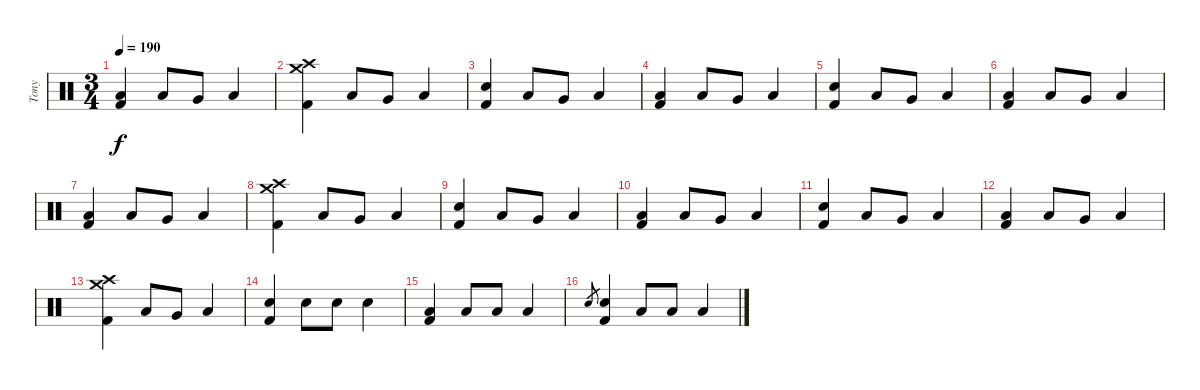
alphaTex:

\track ("Tony" "Tony") {instrument percussion}
\staff {score}
\articulation defaults
\ts (3 4)
\tempo 190
\clef neutral
\ks c
("Low Tom (hit)" "Kick (hit) 2").4{dy f} "Low Tom (hit)".8 "Very Low Tom (hit)".8 "Low Tom (hit)".4 |
("Crash high (hit)" "Crash medium (hit)" "Kick (hit) 2").4 "Low Tom (hit)".8 "Very Low Tom (hit)".8 "Low Tom (hit)".4 |
("Snare (hit) 2" "Kick (hit) 2").4 "Low Tom (hit)".8 "Very Low Tom (hit)".8 "Low Tom (hit)".4 |
("Low Tom (hit)" "Kick (hit) 2").4 "Low Tom (hit)".8 "Very Low Tom (hit)".8 "Low Tom (hit)".4 |
("Snare (hit) 2" "Kick (hit) 2").4 "Low Tom (hit)".8 "Very Low Tom (hit)".8 "Low Tom (hit)".4 |
("Low Tom (hit)" "Kick (hit) 2").4 "Low Tom (hit)".8 "Very Low Tom (hit)".8 "Low Tom (hit)".4 |
("Low Tom (hit)" "Kick (hit) 2").4 "Low Tom (hit)".8 "Very Low Tom (hit)".8 "Low Tom (hit)".4 |
("Crash high (hit)" "Crash medium (hit)" "Kick (hit) 2").4 "Low Tom (hit)".8 "Very Low Tom (hit)".8 "Low Tom (hit)".4 |
("Snare (hit) 2" "Kick (hit) 2").4 "Low Tom (hit)".8 "Very Low Tom (hit)".8 "Low Tom (hit)".4 |
("Low Tom (hit)" "Kick (hit) 2").4 "Low Tom (hit)".8 "Very Low Tom (hit)".8 "Low Tom (hit)".4 |
("Snare (hit) 2" "Kick (hit) 2").4 "Low Tom (hit)".8 "Very Low Tom (hit)".8 "Low Tom (hit)".4 |
("Low Tom (hit)" "Kick (hit) 2").4 "Low Tom (hit)".8 "Very Low Tom (hit)".8 "Low Tom (hit)".4 |
("Crash high (hit)" "Crash medium (hit)" "Kick (hit) 2").4 "Low Tom (hit)".8 "Very Low Tom (hit)".8 "Low Tom (hit)".4 |
("Snare (hit) 2" "Kick (hit) 2").4 "Snare (hit) 2".8 "Snare (hit) 2".8 "Snare (hit) 2".4 |
("Low Tom (hit)" "Kick (hit) 2").4 "Low Tom (hit)".8 "Low Tom (hit)".8 "Low Tom (hit)".4 |
"Snare (hit) 2".8{gr} ("Snare (hit) 2" "Kick (hit) 2").4 "Low Tom (hit)".8 "Low Tom (hit)".8 "Low Tom (hit)".4
